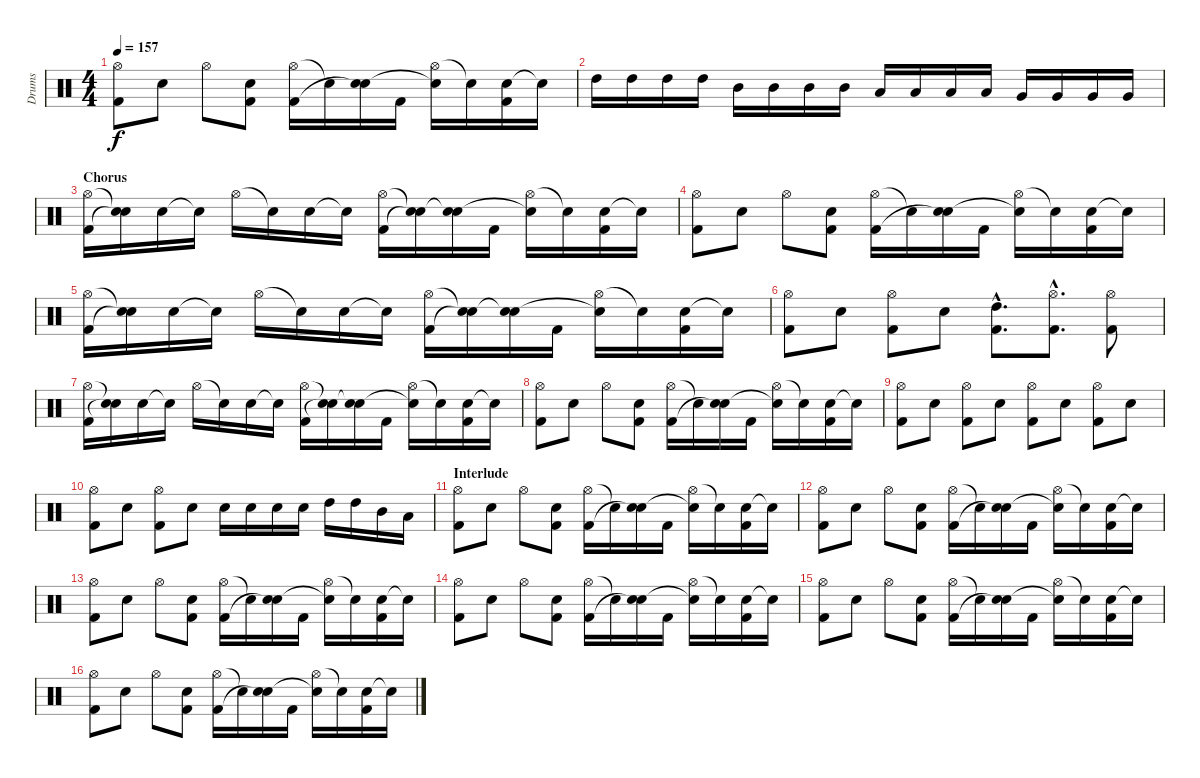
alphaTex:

\track ("Drums" "Drums") {instrument percussion}
\staff {score}
\articulation defaults
\ts (4 4)
\tempo 157
\clef neutral
\ks c
("Hi-Hat (open)" "Kick (hit) 2").8{dy f} "Electric Snare (hit)".8 "Hi-Hat (open)".8 ("Electric Snare (hit)" "Kick (hit) 2").8 ("Hi-Hat (open)" "Kick (hit) 2").16 "Snare (hit)"{t}.16 ("Electric Snare (hit)" "Snare (hit)"{t}).16 "Kick (hit) 2".16 ("Hi-Hat (open)" "Snare (hit)"{t}).16 "Snare (hit)"{t}.16 ("Electric Snare (hit)" "Kick (hit) 2").16 "Snare (hit)"{t}.16 |
"High Tom (hit)".16 "High Tom (hit)".16 "High Tom (hit)".16 "High Tom (hit)".16 "Mid Tom (hit)".16 "Mid Tom (hit)".16 "Mid Tom (hit)".16 "Mid Tom (hit)".16 "Low Tom (hit)".16 "Low Tom (hit)".16 "Low Tom (hit)".16 "Low Tom (hit)".16 "Very Low Tom (hit)".16 "Very Low Tom (hit)".16 "Very Low Tom (hit)".16 "Very Low Tom (hit)".16 |
\section ("" "Chorus")
("Hi-Hat (open)" "Kick (hit) 2").16 ("Snare (hit)"{t} "Snare (hit)"{t}).16 "Electric Snare (hit)".16 "Snare (hit)"{t}.16 "Hi-Hat (open)".16 "Snare (hit)"{t}.16 "Electric Snare (hit)".16 "Snare (hit)"{t}.16 ("Hi-Hat (open)" "Kick (hit) 2").16 ("Snare (hit)"{t} "Snare (hit)"{t}).16 ("Electric Snare (hit)" "Snare (hit)"{t}).16 "Kick (hit) 2".16 ("Hi-Hat (open)" "Snare (hit)"{t}).16 "Snare (hit)"{t}.16 ("Electric Snare (hit)" "Kick (hit) 2").16 "Snare (hit)"{t}.16 |
("Hi-Hat (open)" "Kick (hit) 2").8 "Electric Snare (hit)".8 "Hi-Hat (open)".8 ("Electric Snare (hit)" "Kick (hit) 2").8 ("Hi-Hat (open)" "Kick (hit) 2").16 "Snare (hit)"{t}.16 ("Electric Snare (hit)" "Snare (hit)"{t}).16 "Kick (hit) 2".16 ("Hi-Hat (open)" "Snare (hit)"{t}).16 "Snare (hit)"{t}.16 ("Electric Snare (hit)" "Kick (hit) 2").16 "Snare (hit)"{t}.16 |
("Hi-Hat (open)" "Kick (hit) 2").16 ("Snare (hit)"{t} "Snare (hit)"{t}).16 "Electric Snare (hit)".16 "Snare (hit)"{t}.16 "Hi-Hat (open)".16 "Snare (hit)"{t}.16 "Electric Snare (hit)".16 "Snare (hit)"{t}.16 ("Hi-Hat (open)" "Kick (hit) 2").16 ("Snare (hit)"{t} "Snare (hit)"{t}).16 ("Electric Snare (hit)" "Snare (hit)"{t}).16 "Kick (hit) 2".16 ("Hi-Hat (open)" "Snare (hit)"{t}).16 "Snare (hit)"{t}.16 ("Electric Snare (hit)" "Kick (hit) 2").16 "Snare (hit)"{t}.16 |
("Hi-Hat (open)" "Kick (hit) 2").8 "Electric Snare (hit)".8 ("Hi-Hat (open)" "Kick (hit) 2").8 "Electric Snare (hit)".8 ("High Tom (hit)"{hac} "Kick (hit) 2"{hac}).8{d} ("Hi-Hat (open)"{hac} "Kick (hit) 2"{hac}).8{d} ("Hi-Hat (open)" "Kick (hit) 2").8 |
("Hi-Hat (open)" "Kick (hit) 2").16 ("Snare (hit)"{t} "Snare (hit)"{t}).16 "Electric Snare (hit)".16 "Snare (hit)"{t}.16 "Hi-Hat (open)".16 "Snare (hit)"{t}.16 "Electric Snare (hit)".16 "Snare (hit)"{t}.16 ("Hi-Hat (open)" "Kick (hit) 2").16 ("Snare (hit)"{t} "Snare (hit)"{t}).16 ("Electric Snare (hit)" "Snare (hit)"{t}).16 "Kick (hit) 2".16 ("Hi-Hat (open)" "Snare (hit)"{t}).16 "Snare (hit)"{t}.16 ("Electric Snare (hit)" "Kick (hit) 2").16 "Snare (hit)"{t}.16 |
("Hi-Hat (open)" "Kick (hit) 2").8 "Electric Snare (hit)".8 "Hi-Hat (open)".8 ("Electric Snare (hit)" "Kick (hit) 2").8 ("Hi-Hat (open)" "Kick (hit) 2").16 "Snare (hit)"{t}.16 ("Electric Snare (hit)" "Snare (hit)"{t}).16 "Kick (hit) 2".16 ("Hi-Hat (open)" "Snare (hit)"{t}).16 "Snare (hit)"{t}.16 ("Electric Snare (hit)" "Kick (hit) 2").16 "Snare (hit)"{t}.16 |
("Hi-Hat (open)" "Kick (hit) 2").8 "Electric Snare (hit)".8 ("Hi-Hat (open)" "Kick (hit) 2").8 "Electric Snare (hit)".8 ("Hi-Hat (open)" "Kick (hit) 2").8 "Electric Snare (hit)".8 ("Hi-Hat (open)" "Kick (hit) 2").8 "Electric Snare (hit)".8 |
("Hi-Hat (open)" "Kick (hit) 2").8 "Electric Snare (hit)".8 ("Hi-Hat (open)" "Kick (hit) 2").8 "Electric Snare (hit)".8 "Electric Snare (hit)".16 "Electric Snare (hit)".16 "Electric Snare (hit)".16 "Electric Snare (hit)".16 "High Tom (hit)".16 "High Tom (hit)".16 "Mid Tom (hit)".16 "Low Tom (hit)".16 |
\section ("" "Interlude")
("Hi-Hat (open)" "Kick (hit) 2").8 "Electric Snare (hit)".8 "Hi-Hat (open)".8 ("Electric Snare (hit)" "Kick (hit) 2").8 ("Hi-Hat (open)" "Kick (hit) 2").16 "Snare (hit)"{t}.16 ("Electric Snare (hit)" "Snare (hit)"{t}).16 "Kick (hit) 2".16 ("Hi-Hat (open)" "Snare (hit)"{t}).16 "Snare (hit)"{t}.16 ("Electric Snare (hit)" "Kick (hit) 2").16 "Snare (hit)"{t}.16 |
("Hi-Hat (open)" "Kick (hit) 2").8 "Electric Snare (hit)".8 "Hi-Hat (open)".8 ("Electric Snare (hit)" "Kick (hit) 2").8 ("Hi-Hat (open)" "Kick (hit) 2").16 "Snare (hit)"{t}.16 ("Electric Snare (hit)" "Snare (hit)"{t}).16 "Kick (hit) 2".16 ("Hi-Hat (open)" "Snare (hit)"{t}).16 "Snare (hit)"{t}.16 ("Electric Snare (hit)" "Kick (hit) 2").16 "Snare (hit)"{t}.16 |
("Hi-Hat (open)" "Kick (hit) 2").8 "Electric Snare (hit)".8 "Hi-Hat (open)".8 ("Electric Snare (hit)" "Kick (hit) 2").8 ("Hi-Hat (open)" "Kick (hit) 2").16 "Snare (hit)"{t}.16 ("Electric Snare (hit)" "Snare (hit)"{t}).16 "Kick (hit) 2".16 ("Hi-Hat (open)" "Snare (hit)"{t}).16 "Snare (hit)"{t}.16 ("Electric Snare (hit)" "Kick (hit) 2").16 "Snare (hit)"{t}.16 |
("Hi-Hat (open)" "Kick (hit) 2").8 "Electric Snare (hit)".8 "Hi-Hat (open)".8 ("Electric Snare (hit)" "Kick (hit) 2").8 ("Hi-Hat (open)" "Kick (hit) 2").16 "Snare (hit)"{t}.16 ("Electric Snare (hit)" "Snare (hit)"{t}).16 "Kick (hit) 2".16 ("Hi-Hat (open)" "Snare (hit)"{t}).16 "Snare (hit)"{t}.16 ("Electric Snare (hit)" "Kick (hit) 2").16 "Snare (hit)"{t}.16 |
("Hi-Hat (open)" "Kick (hit) 2").8 "Electric Snare (hit)".8 "Hi-Hat (open)".8 ("Electric Snare (hit)" "Kick (hit) 2").8 ("Hi-Hat (open)" "Kick (hit) 2").16 "Snare (hit)"{t}.16 ("Electric Snare (hit)" "Snare (hit)"{t}).16 "Kick (hit) 2".16 ("Hi-Hat (open)" "Snare (hit)"{t}).16 "Snare (hit)"{t}.16 ("Electric Snare (hit)" "Kick (hit) 2").16 "Snare (hit)"{t}.16 |
("Hi-Hat (open)" "Kick (hit) 2").8 "Electric Snare (hit)".8 "Hi-Hat (open)".8 ("Electric Snare (hit)" "Kick (hit) 2").8 ("Hi-Hat (open)" "Kick (hit) 2").16 "Snare (hit)"{t}.16 ("Electric Snare (hit)" "Snare (hit)"{t}).16 "Kick (hit) 2".16 ("Hi-Hat (open)" "Snare (hit)"{t}).16 "Snare (hit)"{t}.16 ("Electric Snare (hit)" "Kick (hit) 2").16 "Snare (hit)"{t}.16
